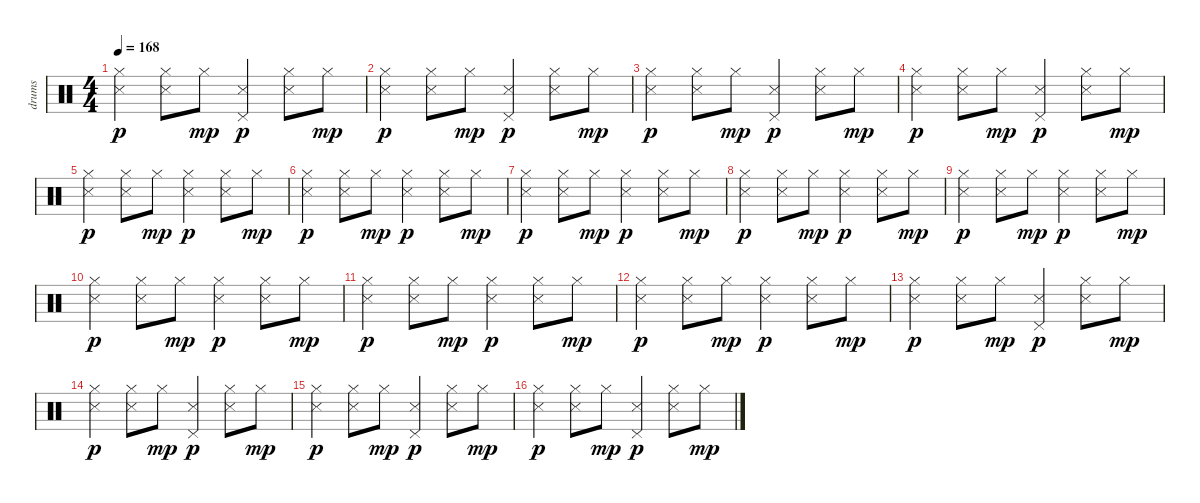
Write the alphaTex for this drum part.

\track ("drums" "drums") {instrument percussion}
\staff {score}
\articulation defaults
\ts (4 4)
\tempo 168
\clef neutral
\ks c
("Hi-Hat (closed)" "Snare (side stick) 3").4{dy p} ("Hi-Hat (closed)" "Snare (side stick) 3").8 "Hi-Hat (closed)".8{dy mp} ("Pedal Hi-Hat (hit)" "Snare (side stick) 3").4{dy p} ("Hi-Hat (closed)" "Snare (side stick) 3").8 "Hi-Hat (closed)".8{dy mp} |
("Hi-Hat (closed)" "Snare (side stick) 3").4{dy p} ("Hi-Hat (closed)" "Snare (side stick) 3").8 "Hi-Hat (closed)".8{dy mp} ("Pedal Hi-Hat (hit)" "Snare (side stick) 3").4{dy p} ("Hi-Hat (closed)" "Snare (side stick) 3").8 "Hi-Hat (closed)".8{dy mp} |
("Hi-Hat (closed)" "Snare (side stick) 3").4{dy p} ("Hi-Hat (closed)" "Snare (side stick) 3").8 "Hi-Hat (closed)".8{dy mp} ("Pedal Hi-Hat (hit)" "Snare (side stick) 3").4{dy p} ("Hi-Hat (closed)" "Snare (side stick) 3").8 "Hi-Hat (closed)".8{dy mp} |
("Hi-Hat (closed)" "Snare (side stick) 3").4{dy p} ("Hi-Hat (closed)" "Snare (side stick) 3").8 "Hi-Hat (closed)".8{dy mp} ("Pedal Hi-Hat (hit)" "Snare (side stick) 3").4{dy p} ("Hi-Hat (closed)" "Snare (side stick) 3").8 "Hi-Hat (closed)".8{dy mp} |
("Hi-Hat (closed)" "Snare (side stick) 3").4{dy p} ("Hi-Hat (closed)" "Snare (side stick) 3").8 "Hi-Hat (closed)".8{dy mp} ("Hi-Hat (closed)" "Snare (side stick) 3").4{dy p} ("Hi-Hat (closed)" "Snare (side stick) 3").8 "Hi-Hat (closed)".8{dy mp} |
("Hi-Hat (closed)" "Snare (side stick) 3").4{dy p} ("Hi-Hat (closed)" "Snare (side stick) 3").8 "Hi-Hat (closed)".8{dy mp} ("Hi-Hat (closed)" "Snare (side stick) 3").4{dy p} ("Hi-Hat (closed)" "Snare (side stick) 3").8 "Hi-Hat (closed)".8{dy mp} |
("Hi-Hat (closed)" "Snare (side stick) 3").4{dy p} ("Hi-Hat (closed)" "Snare (side stick) 3").8 "Hi-Hat (closed)".8{dy mp} ("Hi-Hat (closed)" "Snare (side stick) 3").4{dy p} ("Hi-Hat (closed)" "Snare (side stick) 3").8 "Hi-Hat (closed)".8{dy mp} |
("Hi-Hat (closed)" "Snare (side stick) 3").4{dy p} ("Hi-Hat (closed)" "Snare (side stick) 3").8 "Hi-Hat (closed)".8{dy mp} ("Hi-Hat (closed)" "Snare (side stick) 3").4{dy p} ("Hi-Hat (closed)" "Snare (side stick) 3").8 "Hi-Hat (closed)".8{dy mp} |
("Hi-Hat (closed)" "Snare (side stick) 3").4{dy p} ("Hi-Hat (closed)" "Snare (side stick) 3").8 "Hi-Hat (closed)".8{dy mp} ("Hi-Hat (closed)" "Snare (side stick) 3").4{dy p} ("Hi-Hat (closed)" "Snare (side stick) 3").8 "Hi-Hat (closed)".8{dy mp} |
("Hi-Hat (closed)" "Snare (side stick) 3").4{dy p} ("Hi-Hat (closed)" "Snare (side stick) 3").8 "Hi-Hat (closed)".8{dy mp} ("Hi-Hat (closed)" "Snare (side stick) 3").4{dy p} ("Hi-Hat (closed)" "Snare (side stick) 3").8 "Hi-Hat (closed)".8{dy mp} |
("Hi-Hat (closed)" "Snare (side stick) 3").4{dy p} ("Hi-Hat (closed)" "Snare (side stick) 3").8 "Hi-Hat (closed)".8{dy mp} ("Hi-Hat (closed)" "Snare (side stick) 3").4{dy p} ("Hi-Hat (closed)" "Snare (side stick) 3").8 "Hi-Hat (closed)".8{dy mp} |
("Hi-Hat (closed)" "Snare (side stick) 3").4{dy p} ("Hi-Hat (closed)" "Snare (side stick) 3").8 "Hi-Hat (closed)".8{dy mp} ("Hi-Hat (closed)" "Snare (side stick) 3").4{dy p} ("Hi-Hat (closed)" "Snare (side stick) 3").8 "Hi-Hat (closed)".8{dy mp} |
("Hi-Hat (closed)" "Snare (side stick) 3").4{dy p} ("Hi-Hat (closed)" "Snare (side stick) 3").8 "Hi-Hat (closed)".8{dy mp} ("Pedal Hi-Hat (hit)" "Snare (side stick) 3").4{dy p} ("Hi-Hat (closed)" "Snare (side stick) 3").8 "Hi-Hat (closed)".8{dy mp} |
("Hi-Hat (closed)" "Snare (side stick) 3").4{dy p} ("Hi-Hat (closed)" "Snare (side stick) 3").8 "Hi-Hat (closed)".8{dy mp} ("Pedal Hi-Hat (hit)" "Snare (side stick) 3").4{dy p} ("Hi-Hat (closed)" "Snare (side stick) 3").8 "Hi-Hat (closed)".8{dy mp} |
("Hi-Hat (closed)" "Snare (side stick) 3").4{dy p} ("Hi-Hat (closed)" "Snare (side stick) 3").8 "Hi-Hat (closed)".8{dy mp} ("Pedal Hi-Hat (hit)" "Snare (side stick) 3").4{dy p} ("Hi-Hat (closed)" "Snare (side stick) 3").8 "Hi-Hat (closed)".8{dy mp} |
("Hi-Hat (closed)" "Snare (side stick) 3").4{dy p} ("Hi-Hat (closed)" "Snare (side stick) 3").8 "Hi-Hat (closed)".8{dy mp} ("Pedal Hi-Hat (hit)" "Snare (side stick) 3").4{dy p} ("Hi-Hat (closed)" "Snare (side stick) 3").8 "Hi-Hat (closed)".8{dy mp}
